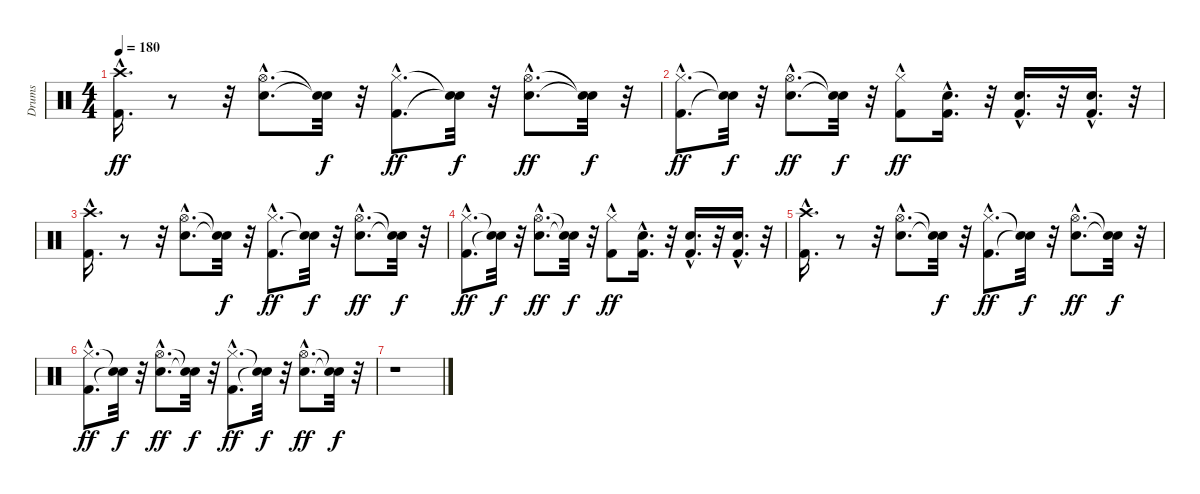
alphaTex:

\track ("Drums" "Drums") {instrument percussion}
\staff {score}
\articulation defaults
\ts (4 4)
\tempo 180
\clef neutral
\ks c
("Kick (hit) 2"{hac} "Crash high (hit)"{hac}).16{d dy ff} r.8 r.32 ("Snare (hit) 2"{hac} "Hi-Hat (open)"{hac}).8{d} ("Snare (hit)"{t} "Snare (hit)"{t}).32{dy f} r.32 ("Kick (hit) 2"{hac} "Hi-Hat (closed)"{hac}).8{d dy ff} ("Snare (hit)"{t} "Snare (hit)"{t}).32{dy f} r.32 ("Snare (hit) 2"{hac} "Hi-Hat (open)"{hac}).8{d dy ff} ("Snare (hit)"{t} "Snare (hit)"{t}).32{dy f} r.32 |
("Kick (hit) 2"{hac} "Hi-Hat (closed)"{hac}).8{d dy ff} ("Snare (hit)"{t} "Snare (hit)"{t}).32{dy f} r.32 ("Snare (hit) 2"{hac} "Hi-Hat (open)"{hac}).8{d dy ff} ("Snare (hit)"{t} "Snare (hit)"{t}).32{dy f} r.32 ("Kick (hit) 2" "Hi-Hat (closed)"{hac}).8{dy ff} ("Kick (hit) 2"{hac} "Snare (hit) 2"{hac}).16{d} r.32 ("Kick (hit) 2"{hac} "Snare (hit) 2"{hac}).16{d} r.32 ("Kick (hit) 2"{hac} "Snare (hit) 2"{hac}).16{d} r.32 |
("Kick (hit) 2"{hac} "Crash high (hit)"{hac}).16{d} r.8 r.32 ("Snare (hit) 2"{hac} "Hi-Hat (open)"{hac}).8{d} ("Snare (hit)"{t} "Snare (hit)"{t}).32{dy f} r.32 ("Kick (hit) 2"{hac} "Hi-Hat (closed)"{hac}).8{d dy ff} ("Snare (hit)"{t} "Snare (hit)"{t}).32{dy f} r.32 ("Snare (hit) 2"{hac} "Hi-Hat (open)"{hac}).8{d dy ff} ("Snare (hit)"{t} "Snare (hit)"{t}).32{dy f} r.32 |
("Kick (hit) 2"{hac} "Hi-Hat (closed)"{hac}).8{d dy ff} ("Snare (hit)"{t} "Snare (hit)"{t}).32{dy f} r.32 ("Snare (hit) 2"{hac} "Hi-Hat (open)"{hac}).8{d dy ff} ("Snare (hit)"{t} "Snare (hit)"{t}).32{dy f} r.32 ("Kick (hit) 2" "Hi-Hat (closed)"{hac}).8{dy ff} ("Kick (hit) 2"{hac} "Snare (hit) 2"{hac}).16{d} r.32 ("Kick (hit) 2"{hac} "Snare (hit) 2"{hac}).16{d} r.32 ("Kick (hit) 2"{hac} "Snare (hit) 2"{hac}).16{d} r.32 |
("Kick (hit) 2"{hac} "Crash high (hit)"{hac}).16{d} r.8 r.32 ("Snare (hit) 2"{hac} "Hi-Hat (open)"{hac}).8{d} ("Snare (hit)"{t} "Snare (hit)"{t}).32{dy f} r.32 ("Kick (hit) 2"{hac} "Hi-Hat (closed)"{hac}).8{d dy ff} ("Snare (hit)"{t} "Snare (hit)"{t}).32{dy f} r.32 ("Snare (hit) 2"{hac} "Hi-Hat (open)"{hac}).8{d dy ff} ("Snare (hit)"{t} "Snare (hit)"{t}).32{dy f} r.32 |
("Kick (hit) 2"{hac} "Hi-Hat (closed)"{hac}).8{d dy ff} ("Snare (hit)"{t} "Snare (hit)"{t}).32{dy f} r.32 ("Snare (hit) 2"{hac} "Hi-Hat (open)"{hac}).8{d dy ff} ("Snare (hit)"{t} "Snare (hit)"{t}).32{dy f} r.32 ("Kick (hit) 2"{hac} "Hi-Hat (closed)"{hac}).8{d dy ff} ("Snare (hit)"{t} "Snare (hit)"{t}).32{dy f} r.32 ("Snare (hit) 2"{hac} "Hi-Hat (open)"{hac}).8{d dy ff} ("Snare (hit)"{t} "Snare (hit)"{t}).32{dy f} r.32 |
r.1
